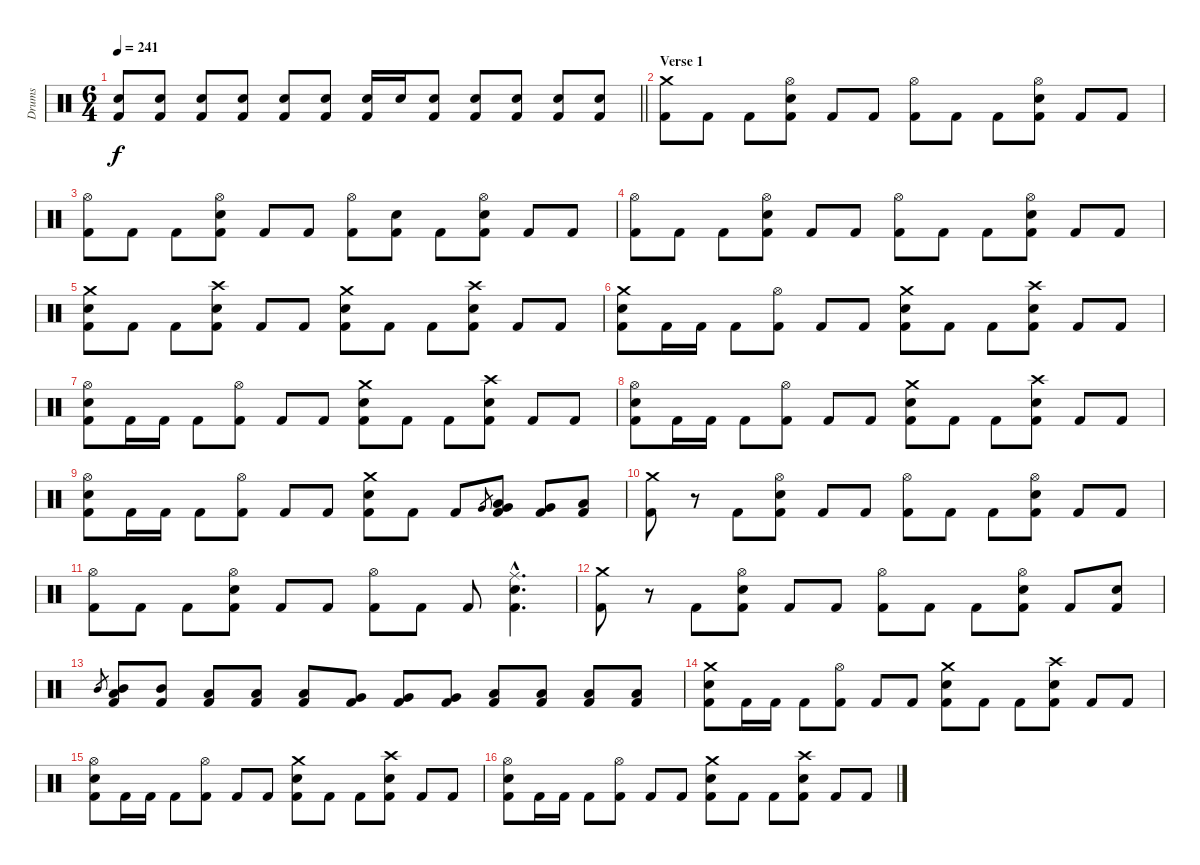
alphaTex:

\track ("Drums" "Drums") {instrument percussion}
\staff {score}
\articulation defaults
\ts (6 4)
\tempo 241
\clef neutral
\barLineRight lightlight
\ks c
("Electric Snare (hit)" "Kick (hit) 2").8{dy f} ("Electric Snare (hit)" "Kick (hit) 2").8 ("Electric Snare (hit)" "Kick (hit) 2").8 ("Electric Snare (hit)" "Kick (hit) 2").8 ("Electric Snare (hit)" "Kick (hit) 2").8 ("Electric Snare (hit)" "Kick (hit) 2").8 ("Electric Snare (hit)" "Kick (hit) 2").16 "Electric Snare (hit)".16 ("Electric Snare (hit)" "Kick (hit) 2").8 ("Electric Snare (hit)" "Kick (hit) 2").8 ("Electric Snare (hit)" "Kick (hit) 2").8 ("Electric Snare (hit)" "Kick (hit) 2").8 ("Electric Snare (hit)" "Kick (hit) 2").8 |
\section ("" "Verse 1")
("Crash medium (hit)" "Kick (hit) 2").8 "Kick (hit) 2".8 "Kick (hit) 2".8 ("Hi-Hat (open)" "Electric Snare (hit)" "Kick (hit) 2").8 "Kick (hit) 2".8 "Kick (hit) 2".8 ("Hi-Hat (open)" "Kick (hit) 2").8 "Kick (hit) 2".8 "Kick (hit) 2".8 ("Hi-Hat (open)" "Electric Snare (hit)" "Kick (hit) 2").8 "Kick (hit) 2".8 "Kick (hit) 2".8 |
("Hi-Hat (open)" "Kick (hit) 2").8 "Kick (hit) 2".8 "Kick (hit) 2".8 ("Hi-Hat (open)" "Electric Snare (hit)" "Kick (hit) 2").8 "Kick (hit) 2".8 "Kick (hit) 2".8 ("Hi-Hat (open)" "Kick (hit) 2").8 ("Electric Snare (hit)" "Kick (hit) 2").8 "Kick (hit) 2".8 ("Hi-Hat (open)" "Electric Snare (hit)" "Kick (hit) 2").8 "Kick (hit) 2".8 "Kick (hit) 2".8 |
("Hi-Hat (open)" "Kick (hit) 2").8 "Kick (hit) 2".8 "Kick (hit) 2".8 ("Hi-Hat (open)" "Electric Snare (hit)" "Kick (hit) 2").8 "Kick (hit) 2".8 "Kick (hit) 2".8 ("Hi-Hat (open)" "Kick (hit) 2").8 "Kick (hit) 2".8 "Kick (hit) 2".8 ("Hi-Hat (open)" "Electric Snare (hit)" "Kick (hit) 2").8 "Kick (hit) 2".8 "Kick (hit) 2".8 |
("Crash medium (hit)" "Electric Snare (hit)" "Kick (hit) 2").8 "Kick (hit) 2".8 "Kick (hit) 2".8 ("Crash high (hit)" "Electric Snare (hit)" "Kick (hit) 2").8 "Kick (hit) 2".8 "Kick (hit) 2".8 ("Crash medium (hit)" "Electric Snare (hit)" "Kick (hit) 2").8 "Kick (hit) 2".8 "Kick (hit) 2".8 ("Crash high (hit)" "Electric Snare (hit)" "Kick (hit) 2").8 "Kick (hit) 2".8 "Kick (hit) 2".8 |
("Crash medium (hit)" "Electric Snare (hit)" "Kick (hit) 2").8 "Kick (hit) 2".16 "Kick (hit) 2".16 "Kick (hit) 2".8 ("Hi-Hat (open)" "Kick (hit) 2").8 "Kick (hit) 2".8 "Kick (hit) 2".8 ("Crash medium (hit)" "Electric Snare (hit)" "Kick (hit) 2").8 "Kick (hit) 2".8 "Kick (hit) 2".8 ("Crash high (hit)" "Electric Snare (hit)" "Kick (hit) 2").8 "Kick (hit) 2".8 "Kick (hit) 2".8 |
("Hi-Hat (open)" "Electric Snare (hit)" "Kick (hit) 2").8 "Kick (hit) 2".16 "Kick (hit) 2".16 "Kick (hit) 2".8 ("Hi-Hat (open)" "Kick (hit) 2").8 "Kick (hit) 2".8 "Kick (hit) 2".8 ("Crash medium (hit)" "Electric Snare (hit)" "Kick (hit) 2").8 "Kick (hit) 2".8 "Kick (hit) 2".8 ("Crash high (hit)" "Electric Snare (hit)" "Kick (hit) 2").8 "Kick (hit) 2".8 "Kick (hit) 2".8 |
("Hi-Hat (open)" "Electric Snare (hit)" "Kick (hit) 2").8 "Kick (hit) 2".16 "Kick (hit) 2".16 "Kick (hit) 2".8 ("Hi-Hat (open)" "Kick (hit) 2").8 "Kick (hit) 2".8 "Kick (hit) 2".8 ("Crash medium (hit)" "Electric Snare (hit)" "Kick (hit) 2").8 "Kick (hit) 2".8 "Kick (hit) 2".8 ("Crash high (hit)" "Electric Snare (hit)" "Kick (hit) 2").8 "Kick (hit) 2".8 "Kick (hit) 2".8 |
("Hi-Hat (open)" "Electric Snare (hit)" "Kick (hit) 2").8 "Kick (hit) 2".16 "Kick (hit) 2".16 "Kick (hit) 2".8 ("Hi-Hat (open)" "Kick (hit) 2").8 "Kick (hit) 2".8 "Kick (hit) 2".8 ("Crash medium (hit)" "Electric Snare (hit)" "Kick (hit) 2").8 "Kick (hit) 2".8 "Kick (hit) 2".8 "Very Low Tom (hit)".8{gr} ("Very Low Tom (hit)" "Low Tom (hit)" "Kick (hit) 2").8 ("Very Low Tom (hit)" "Kick (hit) 2").8 ("Low Floor Tom (hit)" "Kick (hit) 2").8 |
("Crash medium (hit)" "Kick (hit) 2").8 r.8 "Kick (hit) 2".8 ("Hi-Hat (open)" "Electric Snare (hit)" "Kick (hit) 2").8 "Kick (hit) 2".8 "Kick (hit) 2".8 ("Hi-Hat (open)" "Kick (hit) 2").8 "Kick (hit) 2".8 "Kick (hit) 2".8 ("Hi-Hat (open)" "Electric Snare (hit)" "Kick (hit) 2").8 "Kick (hit) 2".8 "Kick (hit) 2".8 |
("Hi-Hat (open)" "Kick (hit) 2").8 "Kick (hit) 2".8 "Kick (hit) 2".8 ("Hi-Hat (open)" "Electric Snare (hit)" "Kick (hit) 2").8 "Kick (hit) 2".8 "Kick (hit) 2".8 ("Hi-Hat (open)" "Kick (hit) 2").8 "Kick (hit) 2".8 "Kick (hit) 2".8 ("Ride (middle)"{hac} "Electric Snare (hit)"{hac} "Kick (hit) 2"{hac}).4{d} |
("Crash medium (hit)" "Kick (hit) 2").8 r.8 "Kick (hit) 2".8 ("Hi-Hat (open)" "Electric Snare (hit)" "Kick (hit) 2").8 "Kick (hit) 2".8 "Kick (hit) 2".8 ("Hi-Hat (open)" "Kick (hit) 2").8 "Kick (hit) 2".8 "Kick (hit) 2".8 ("Hi-Hat (open)" "Electric Snare (hit)" "Kick (hit) 2").8 "Kick (hit) 2".8 ("Electric Snare (hit)" "Kick (hit) 2").8 |
"Mid Tom (hit)".8{gr} ("Mid Tom (hit)" "Low Tom (hit)" "Kick (hit) 2").8 ("Mid Tom (hit)" "Kick (hit) 2").8 ("Low Tom (hit)" "Kick (hit) 2").8 ("Low Tom (hit)" "Kick (hit) 2").8 ("Low Tom (hit)" "Kick (hit) 2").8 ("Very Low Tom (hit)" "Kick (hit) 2").8 ("Very Low Tom (hit)" "Kick (hit) 2").8 ("Very Low Tom (hit)" "Kick (hit) 2").8 ("Low Floor Tom (hit)" "Kick (hit) 2").8 ("Low Floor Tom (hit)" "Kick (hit) 2").8 ("Low Floor Tom (hit)" "Kick (hit) 2").8 ("Low Floor Tom (hit)" "Kick (hit) 2").8 |
("Crash medium (hit)" "Electric Snare (hit)" "Kick (hit) 2").8 "Kick (hit) 2".16 "Kick (hit) 2".16 "Kick (hit) 2".8 ("Hi-Hat (open)" "Kick (hit) 2").8 "Kick (hit) 2".8 "Kick (hit) 2".8 ("Crash medium (hit)" "Electric Snare (hit)" "Kick (hit) 2").8 "Kick (hit) 2".8 "Kick (hit) 2".8 ("Crash high (hit)" "Electric Snare (hit)" "Kick (hit) 2").8 "Kick (hit) 2".8 "Kick (hit) 2".8 |
("Hi-Hat (open)" "Electric Snare (hit)" "Kick (hit) 2").8 "Kick (hit) 2".16 "Kick (hit) 2".16 "Kick (hit) 2".8 ("Hi-Hat (open)" "Kick (hit) 2").8 "Kick (hit) 2".8 "Kick (hit) 2".8 ("Crash medium (hit)" "Electric Snare (hit)" "Kick (hit) 2").8 "Kick (hit) 2".8 "Kick (hit) 2".8 ("Crash high (hit)" "Electric Snare (hit)" "Kick (hit) 2").8 "Kick (hit) 2".8 "Kick (hit) 2".8 |
("Hi-Hat (open)" "Electric Snare (hit)" "Kick (hit) 2").8 "Kick (hit) 2".16 "Kick (hit) 2".16 "Kick (hit) 2".8 ("Hi-Hat (open)" "Kick (hit) 2").8 "Kick (hit) 2".8 "Kick (hit) 2".8 ("Crash medium (hit)" "Electric Snare (hit)" "Kick (hit) 2").8 "Kick (hit) 2".8 "Kick (hit) 2".8 ("Crash high (hit)" "Electric Snare (hit)" "Kick (hit) 2").8 "Kick (hit) 2".8 "Kick (hit) 2".8
